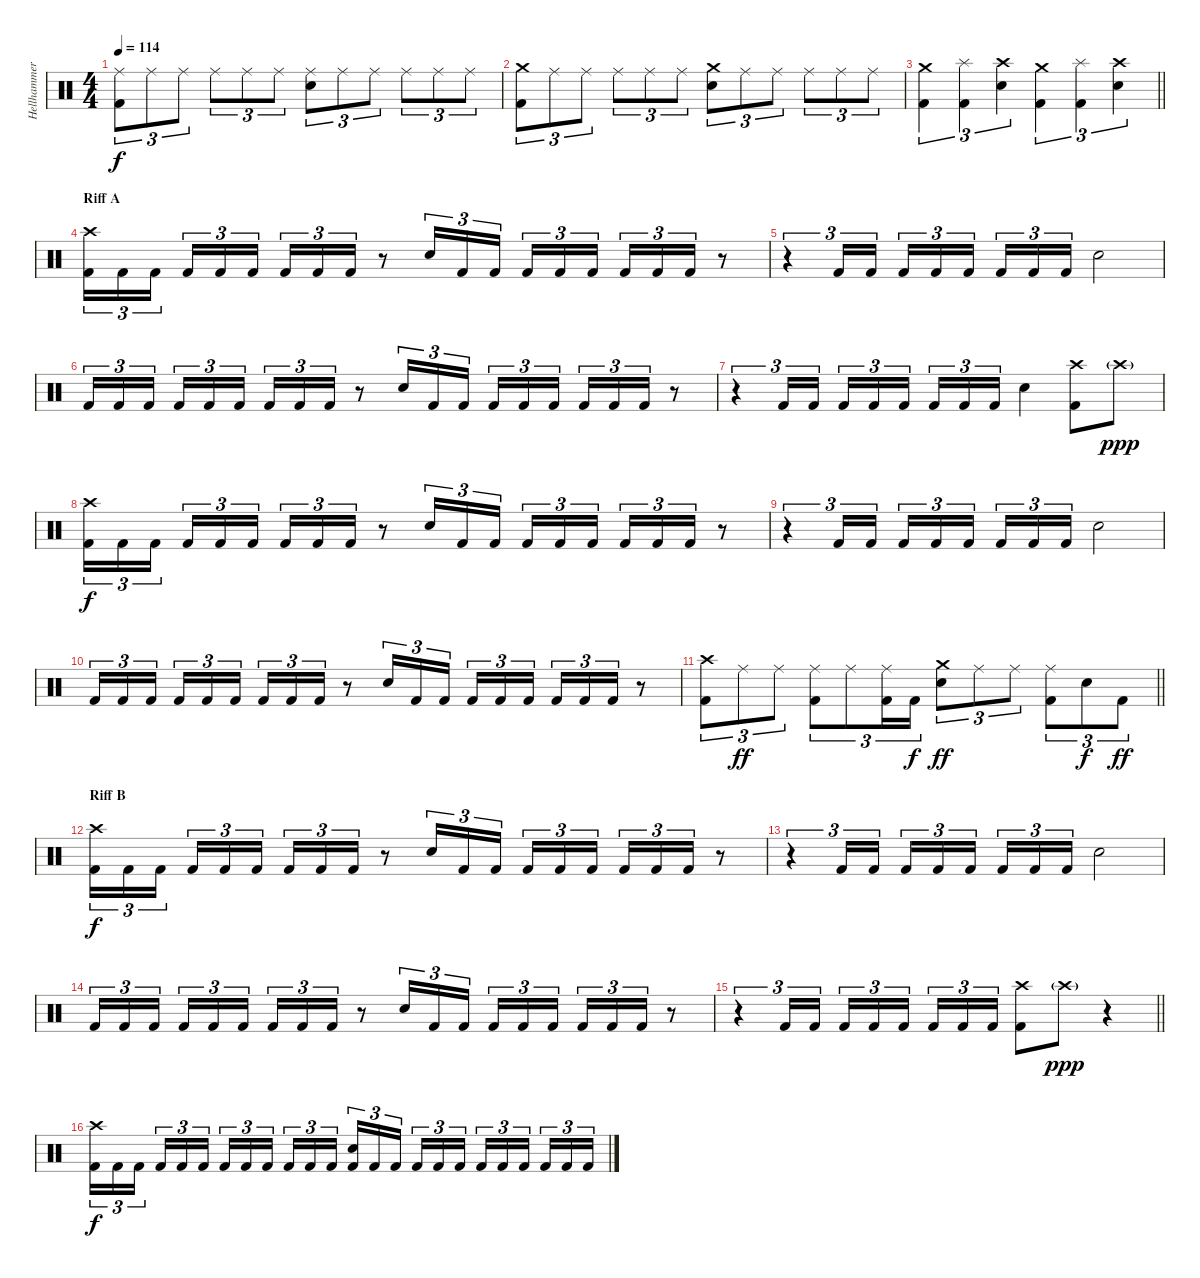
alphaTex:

\track ("Hellhammer" "Hellhammer") {instrument percussion}
\staff {score}
\articulation defaults
\ts (4 4)
\tempo 114
\clef neutral
\ks c
("Ride (middle)" "Kick (hit) 2").8{tu (3 2) dy f} "Ride (middle)".8{tu (3 2)} "Ride (middle)".8{tu (3 2)} "Ride (middle)".8{tu (3 2)} "Ride (middle)".8{tu (3 2)} "Ride (middle)".8{tu (3 2)} ("Ride (middle)" "Snare (hit) 2").8{tu (3 2)} "Ride (middle)".8{tu (3 2)} "Ride (middle)".8{tu (3 2)} "Ride (middle)".8{tu (3 2)} "Ride (middle)".8{tu (3 2)} "Ride (middle)".8{tu (3 2)} |
("Crash medium (hit)" "Kick (hit) 2").8{tu (3 2)} "Ride (middle)".8{tu (3 2)} "Ride (middle)".8{tu (3 2)} "Ride (middle)".8{tu (3 2)} "Ride (middle)".8{tu (3 2)} "Ride (middle)".8{tu (3 2)} ("Crash medium (hit)" "Snare (hit) 2").8{tu (3 2)} "Ride (middle)".8{tu (3 2)} "Ride (middle)".8{tu (3 2)} "Ride (middle)".8{tu (3 2)} "Ride (middle)".8{tu (3 2)} "Ride (middle)".8{tu (3 2)} |
\barLineRight lightlight
("Crash medium (hit)" "Kick (hit) 2").4{tu (3 2)} ("Splash (hit)" "Kick (hit) 2").4{tu (3 2)} ("Crash high (hit)" "Snare (hit) 2").4{tu (3 2)} ("Crash medium (hit)" "Kick (hit) 2").4{tu (3 2)} ("Splash (hit)" "Kick (hit) 2").4{tu (3 2)} ("Crash high (hit)" "Snare (hit) 2").4{tu (3 2)} |
\section ("" "Riff A")
("Crash high (hit)" "Kick (hit) 2").16{tu (3 2)} "Kick (hit) 2".16{tu (3 2)} "Kick (hit) 2".16{tu (3 2) beam splitsecondary} "Kick (hit) 2".16{tu (3 2)} "Kick (hit) 2".16{tu (3 2)} "Kick (hit) 2".16{tu (3 2)} "Kick (hit) 2".16{tu (3 2)} "Kick (hit) 2".16{tu (3 2)} "Kick (hit) 2".16{tu (3 2)} r.8 "Snare (hit) 2".16{tu (3 2)} "Kick (hit) 2".16{tu (3 2)} "Kick (hit) 2".16{tu (3 2) beam splitsecondary} "Kick (hit) 2".16{tu (3 2)} "Kick (hit) 2".16{tu (3 2)} "Kick (hit) 2".16{tu (3 2)} "Kick (hit) 2".16{tu (3 2)} "Kick (hit) 2".16{tu (3 2)} "Kick (hit) 2".16{tu (3 2)} r.8 |
r.4{tu (3 2)} "Kick (hit) 2".16{tu (3 2)} "Kick (hit) 2".16{tu (3 2)} "Kick (hit) 2".16{tu (3 2)} "Kick (hit) 2".16{tu (3 2)} "Kick (hit) 2".16{tu (3 2) beam splitsecondary} "Kick (hit) 2".16{tu (3 2)} "Kick (hit) 2".16{tu (3 2)} "Kick (hit) 2".16{tu (3 2)} "Snare (hit) 2".2 |
"Kick (hit) 2".16{tu (3 2)} "Kick (hit) 2".16{tu (3 2)} "Kick (hit) 2".16{tu (3 2) beam splitsecondary} "Kick (hit) 2".16{tu (3 2)} "Kick (hit) 2".16{tu (3 2)} "Kick (hit) 2".16{tu (3 2)} "Kick (hit) 2".16{tu (3 2)} "Kick (hit) 2".16{tu (3 2)} "Kick (hit) 2".16{tu (3 2)} r.8 "Snare (hit) 2".16{tu (3 2)} "Kick (hit) 2".16{tu (3 2)} "Kick (hit) 2".16{tu (3 2) beam splitsecondary} "Kick (hit) 2".16{tu (3 2)} "Kick (hit) 2".16{tu (3 2)} "Kick (hit) 2".16{tu (3 2)} "Kick (hit) 2".16{tu (3 2)} "Kick (hit) 2".16{tu (3 2)} "Kick (hit) 2".16{tu (3 2)} r.8 |
r.4{tu (3 2)} "Kick (hit) 2".16{tu (3 2)} "Kick (hit) 2".16{tu (3 2)} "Kick (hit) 2".16{tu (3 2)} "Kick (hit) 2".16{tu (3 2)} "Kick (hit) 2".16{tu (3 2) beam splitsecondary} "Kick (hit) 2".16{tu (3 2)} "Kick (hit) 2".16{tu (3 2)} "Kick (hit) 2".16{tu (3 2)} "Snare (hit) 2".4 ("Crash high (hit)" "Kick (hit) 2").8 "Crash high (hit)"{g}.8{dy ppp} |
("Crash high (hit)" "Kick (hit) 2").16{tu (3 2) dy f} "Kick (hit) 2".16{tu (3 2)} "Kick (hit) 2".16{tu (3 2) beam splitsecondary} "Kick (hit) 2".16{tu (3 2)} "Kick (hit) 2".16{tu (3 2)} "Kick (hit) 2".16{tu (3 2)} "Kick (hit) 2".16{tu (3 2)} "Kick (hit) 2".16{tu (3 2)} "Kick (hit) 2".16{tu (3 2)} r.8 "Snare (hit) 2".16{tu (3 2)} "Kick (hit) 2".16{tu (3 2)} "Kick (hit) 2".16{tu (3 2) beam splitsecondary} "Kick (hit) 2".16{tu (3 2)} "Kick (hit) 2".16{tu (3 2)} "Kick (hit) 2".16{tu (3 2)} "Kick (hit) 2".16{tu (3 2)} "Kick (hit) 2".16{tu (3 2)} "Kick (hit) 2".16{tu (3 2)} r.8 |
r.4{tu (3 2)} "Kick (hit) 2".16{tu (3 2)} "Kick (hit) 2".16{tu (3 2)} "Kick (hit) 2".16{tu (3 2)} "Kick (hit) 2".16{tu (3 2)} "Kick (hit) 2".16{tu (3 2) beam splitsecondary} "Kick (hit) 2".16{tu (3 2)} "Kick (hit) 2".16{tu (3 2)} "Kick (hit) 2".16{tu (3 2)} "Snare (hit) 2".2 |
"Kick (hit) 2".16{tu (3 2)} "Kick (hit) 2".16{tu (3 2)} "Kick (hit) 2".16{tu (3 2) beam splitsecondary} "Kick (hit) 2".16{tu (3 2)} "Kick (hit) 2".16{tu (3 2)} "Kick (hit) 2".16{tu (3 2)} "Kick (hit) 2".16{tu (3 2)} "Kick (hit) 2".16{tu (3 2)} "Kick (hit) 2".16{tu (3 2)} r.8 "Snare (hit) 2".16{tu (3 2)} "Kick (hit) 2".16{tu (3 2)} "Kick (hit) 2".16{tu (3 2) beam splitsecondary} "Kick (hit) 2".16{tu (3 2)} "Kick (hit) 2".16{tu (3 2)} "Kick (hit) 2".16{tu (3 2)} "Kick (hit) 2".16{tu (3 2)} "Kick (hit) 2".16{tu (3 2)} "Kick (hit) 2".16{tu (3 2)} r.8 |
\barLineRight lightlight
("Crash high (hit)" "Kick (hit) 2").8{tu (3 2)} "Ride (middle)".8{tu (3 2) dy ff} "Ride (middle)".8{tu (3 2)} ("Ride (middle)" "Kick (hit) 2").8{tu (3 2)} "Ride (middle)".8{tu (3 2)} ("Ride (middle)" "Kick (hit) 2").16{tu (3 2)} "Kick (hit) 2".16{tu (3 2) dy f} ("Crash medium (hit)" "Snare (hit) 2").8{tu (3 2) dy ff} "Ride (middle)".8{tu (3 2)} "Ride (middle)".8{tu (3 2)} ("Ride (middle)" "Kick (hit) 2").8{tu (3 2)} "Snare (hit) 2".8{tu (3 2) dy f} "Kick (hit) 2".8{tu (3 2) dy ff} |
\section ("" "Riff B")
("Crash high (hit)" "Kick (hit) 2").16{tu (3 2) dy f} "Kick (hit) 2".16{tu (3 2)} "Kick (hit) 2".16{tu (3 2) beam splitsecondary} "Kick (hit) 2".16{tu (3 2)} "Kick (hit) 2".16{tu (3 2)} "Kick (hit) 2".16{tu (3 2)} "Kick (hit) 2".16{tu (3 2)} "Kick (hit) 2".16{tu (3 2)} "Kick (hit) 2".16{tu (3 2)} r.8 "Snare (hit) 2".16{tu (3 2)} "Kick (hit) 2".16{tu (3 2)} "Kick (hit) 2".16{tu (3 2) beam splitsecondary} "Kick (hit) 2".16{tu (3 2)} "Kick (hit) 2".16{tu (3 2)} "Kick (hit) 2".16{tu (3 2)} "Kick (hit) 2".16{tu (3 2)} "Kick (hit) 2".16{tu (3 2)} "Kick (hit) 2".16{tu (3 2)} r.8 |
r.4{tu (3 2)} "Kick (hit) 2".16{tu (3 2)} "Kick (hit) 2".16{tu (3 2)} "Kick (hit) 2".16{tu (3 2)} "Kick (hit) 2".16{tu (3 2)} "Kick (hit) 2".16{tu (3 2) beam splitsecondary} "Kick (hit) 2".16{tu (3 2)} "Kick (hit) 2".16{tu (3 2)} "Kick (hit) 2".16{tu (3 2)} "Snare (hit) 2".2 |
"Kick (hit) 2".16{tu (3 2)} "Kick (hit) 2".16{tu (3 2)} "Kick (hit) 2".16{tu (3 2) beam splitsecondary} "Kick (hit) 2".16{tu (3 2)} "Kick (hit) 2".16{tu (3 2)} "Kick (hit) 2".16{tu (3 2)} "Kick (hit) 2".16{tu (3 2)} "Kick (hit) 2".16{tu (3 2)} "Kick (hit) 2".16{tu (3 2)} r.8 "Snare (hit) 2".16{tu (3 2)} "Kick (hit) 2".16{tu (3 2)} "Kick (hit) 2".16{tu (3 2) beam splitsecondary} "Kick (hit) 2".16{tu (3 2)} "Kick (hit) 2".16{tu (3 2)} "Kick (hit) 2".16{tu (3 2)} "Kick (hit) 2".16{tu (3 2)} "Kick (hit) 2".16{tu (3 2)} "Kick (hit) 2".16{tu (3 2)} r.8 |
\barLineRight lightlight
r.4{tu (3 2)} "Kick (hit) 2".16{tu (3 2)} "Kick (hit) 2".16{tu (3 2)} "Kick (hit) 2".16{tu (3 2)} "Kick (hit) 2".16{tu (3 2)} "Kick (hit) 2".16{tu (3 2) beam splitsecondary} "Kick (hit) 2".16{tu (3 2)} "Kick (hit) 2".16{tu (3 2)} "Kick (hit) 2".16{tu (3 2)} ("Crash high (hit)" "Kick (hit) 2").8 "Crash high (hit)"{g}.8{dy ppp} r.4 |
\section ("" "")
("Crash high (hit)" "Kick (hit) 2").16{tu (3 2) dy f} "Kick (hit) 2".16{tu (3 2)} "Kick (hit) 2".16{tu (3 2) beam splitsecondary} "Kick (hit) 2".16{tu (3 2)} "Kick (hit) 2".16{tu (3 2)} "Kick (hit) 2".16{tu (3 2)} "Kick (hit) 2".16{tu (3 2)} "Kick (hit) 2".16{tu (3 2)} "Kick (hit) 2".16{tu (3 2) beam splitsecondary} "Kick (hit) 2".16{tu (3 2)} "Kick (hit) 2".16{tu (3 2)} "Kick (hit) 2".16{tu (3 2)} ("Snare (hit) 2" "Kick (hit) 2").16{tu (3 2)} "Kick (hit) 2".16{tu (3 2)} "Kick (hit) 2".16{tu (3 2) beam splitsecondary} "Kick (hit) 2".16{tu (3 2)} "Kick (hit) 2".16{tu (3 2)} "Kick (hit) 2".16{tu (3 2)} "Kick (hit) 2".16{tu (3 2)} "Kick (hit) 2".16{tu (3 2)} "Kick (hit) 2".16{tu (3 2) beam splitsecondary} "Kick (hit) 2".16{tu (3 2)} "Kick (hit) 2".16{tu (3 2)} "Kick (hit) 2".16{tu (3 2)}
